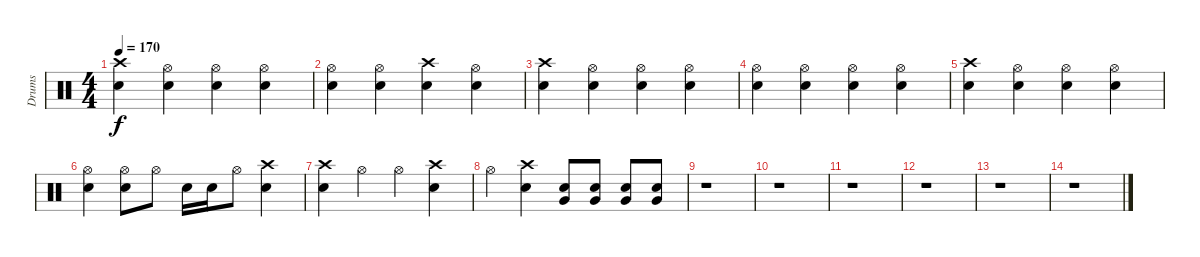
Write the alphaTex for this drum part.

\track ("Drums" "Drums") {instrument percussion}
\staff {score}
\articulation defaults
\ts (4 4)
\tempo 170
\clef neutral
\ks c
("Crash high (hit)" "Snare (hit) 2").4{dy f} ("Hi-Hat (open)" "Snare (hit) 2").4 ("Hi-Hat (open)" "Snare (hit) 2").4 ("Hi-Hat (open)" "Snare (hit) 2").4 |
("Hi-Hat (open)" "Snare (hit) 2").4 ("Hi-Hat (open)" "Snare (hit) 2").4 ("Crash high (hit)" "Snare (hit) 2").4 ("Hi-Hat (open)" "Snare (hit) 2").4 |
("Crash high (hit)" "Snare (hit) 2").4 ("Hi-Hat (open)" "Snare (hit) 2").4 ("Hi-Hat (open)" "Snare (hit) 2").4 ("Hi-Hat (open)" "Snare (hit) 2").4 |
("Hi-Hat (open)" "Snare (hit) 2").4 ("Hi-Hat (open)" "Snare (hit) 2").4 ("Hi-Hat (open)" "Snare (hit) 2").4 ("Hi-Hat (open)" "Snare (hit) 2").4 |
("Crash high (hit)" "Snare (hit) 2").4 ("Hi-Hat (open)" "Snare (hit) 2").4 ("Hi-Hat (open)" "Snare (hit) 2").4 ("Hi-Hat (open)" "Snare (hit) 2").4 |
("Hi-Hat (open)" "Snare (hit) 2").4 ("Hi-Hat (open)" "Snare (hit) 2").8 "Hi-Hat (open)".8 "Snare (hit) 2".16 "Snare (hit) 2".16 "Hi-Hat (open)".8 ("Crash high (hit)" "Snare (hit) 2").4 |
("Crash high (hit)" "Snare (hit) 2").4 "Hi-Hat (open)".4 "Hi-Hat (open)".4 ("Crash high (hit)" "Snare (hit) 2").4 |
"Hi-Hat (open)".4 ("Crash high (hit)" "Snare (hit) 2").4 ("Snare (hit) 2" "Very Low Tom (hit)").8 ("Snare (hit) 2" "Very Low Tom (hit)").8 ("Snare (hit) 2" "Very Low Tom (hit)").8 ("Snare (hit) 2" "Very Low Tom (hit)").8 |
r.1 |
r.1 |
r.1 |
r.1 |
r.1 |
r.1
